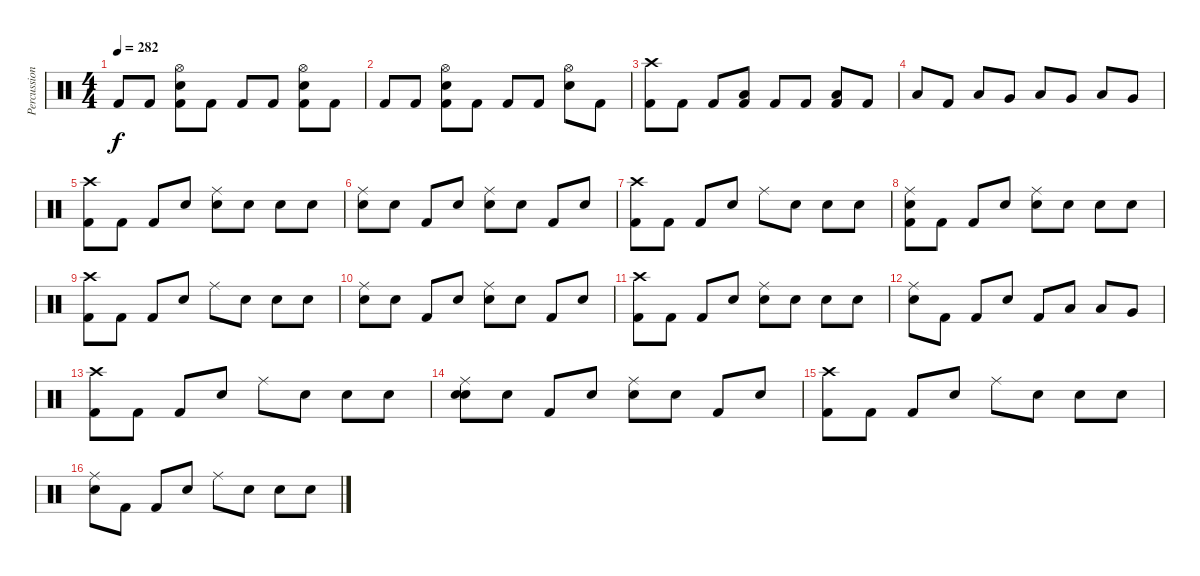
\track ("Percussion" "Percussion") {instrument percussion}
\staff {score}
\articulation defaults
\ts (4 4)
\tempo 282
\clef neutral
\ks c "Kick (hit) 2".8{dy f} "Kick (hit) 2".8
("Kick (hit) 2" "Snare (hit) 2" "Hi-Hat (open)").8 "Kick (hit) 2".8 "Kick (hit) 2".8 "Kick (hit) 2".8 ("Kick (hit) 2" "Snare (hit) 2" "Hi-Hat (open)").8 "Kick (hit) 2".8 |
"Kick (hit) 2".8 "Kick (hit) 2".8 ("Kick (hit) 2" "Snare (hit) 2" "Hi-Hat (open)").8 "Kick (hit) 2".8 "Kick (hit) 2".8 "Kick (hit) 2".8 ("Snare (hit) 2" "Hi-Hat (open)").8 "Kick (hit) 2".8 |
("Kick (hit) 2" "Crash high (hit)").8 "Kick (hit) 2".8 "Kick (hit) 2".8 ("Kick (hit) 2" "Low Floor Tom (hit)").8 "Kick (hit) 2".8 "Kick (hit) 2".8 ("Kick (hit) 2" "Low Floor Tom (hit)").8 "Kick (hit) 2".8 |
"Low Floor Tom (hit)".8 "Kick (hit) 2".8 "Low Floor Tom (hit)".8 "Very Low Tom (hit)".8 "Low Floor Tom (hit)".8 "Very Low Tom (hit)".8 "Low Tom (hit)".8 "Very Low Tom (hit)".8 |
("Kick (hit) 2" "Crash high (hit)").8 "Kick (hit) 2".8 "Kick (hit) 2".8 "Snare (hit)"{x}.8 ("Snare (hit)"{x} "Ride (middle)").8 "Snare (hit)"{x}.8 "Snare (hit)"{x}.8 "Snare (hit)"{x}.8 |
("Snare (hit) 2" "Ride (middle)").8 "Snare (hit)"{x}.8 "Kick (hit) 2".8 "Snare (hit)"{x}.8 ("Snare (hit)"{x} "Ride (middle)").8 "Snare (hit)"{x}.8 "Kick (hit) 2".8 "Snare (hit)"{x}.8 |
("Kick (hit) 2" "Crash high (hit)").8 "Kick (hit) 2".8 "Kick (hit) 2".8 "Snare (hit)"{x}.8 "Ride (middle)".8 "Snare (hit)"{x}.8 "Snare (hit)"{x}.8 "Snare (hit)"{x}.8 |
("Kick (hit) 2"{x} "Snare (hit) 2" "Ride (middle)").8 "Kick (hit) 2".8 "Kick (hit) 2".8 "Snare (hit)"{x}.8 ("Snare (hit)"{x} "Ride (middle)").8 "Snare (hit)"{x}.8 "Snare (hit)"{x}.8 "Snare (hit)"{x}.8 |
("Kick (hit) 2" "Crash high (hit)").8 "Kick (hit) 2".8 "Kick (hit) 2".8 "Snare (hit)"{x}.8 "Ride (middle)".8 "Snare (hit)"{x}.8 "Snare (hit)"{x}.8 "Snare (hit)"{x}.8 |
("Snare (hit) 2" "Ride (middle)").8 "Snare (hit)"{x}.8 "Kick (hit) 2".8 "Snare (hit)"{x}.8 ("Snare (hit)"{x} "Ride (middle)").8 "Snare (hit)"{x}.8 "Kick (hit) 2".8 "Snare (hit)"{x}.8 |
("Kick (hit) 2" "Crash high (hit)").8 "Kick (hit) 2".8 "Kick (hit) 2".8 "Snare (hit)"{x}.8 ("Snare (hit)"{x} "Ride (middle)").8 "Snare (hit)"{x}.8 "Snare (hit)"{x}.8 "Snare (hit)"{x}.8 |
("Snare (hit) 2" "Ride (middle)").8 "Kick (hit) 2".8 "Kick (hit) 2".8 "Snare (hit)"{x}.8 "Kick (hit) 2".8 "Low Tom (hit)".8 "Low Tom (hit)".8 "Very Low Tom (hit)".8 |
("Kick (hit) 2" "Crash high (hit)").8 "Kick (hit) 2".8 "Kick (hit) 2".8 "Snare (hit)"{x}.8 "Ride (middle)".8 "Snare (hit)"{x}.8 "Snare (hit)"{x}.8 "Snare (hit)"{x}.8 |
("Snare (hit)"{x} "Snare (hit) 2" "Ride (middle)").8 "Snare (hit)"{x}.8 "Kick (hit) 2".8 "Snare (hit)"{x}.8 ("Snare (hit)"{x} "Ride (middle)").8 "Snare (hit)"{x}.8 "Kick (hit) 2".8 "Snare (hit)"{x}.8 |
("Kick (hit) 2" "Crash high (hit)").8 "Kick (hit) 2".8 "Kick (hit) 2".8 "Snare (hit)"{x}.8 "Ride (middle)".8 "Snare (hit)"{x}.8 "Snare (hit)"{x}.8 "Snare (hit)"{x}.8 |
("Snare (hit) 2" "Ride (middle)").8 "Kick (hit) 2".8 "Kick (hit) 2".8 "Snare (hit)"{x}.8 "Ride (middle)".8 "Snare (hit)"{x}.8 "Snare (hit)"{x}.8 "Snare (hit)"{x}.8
